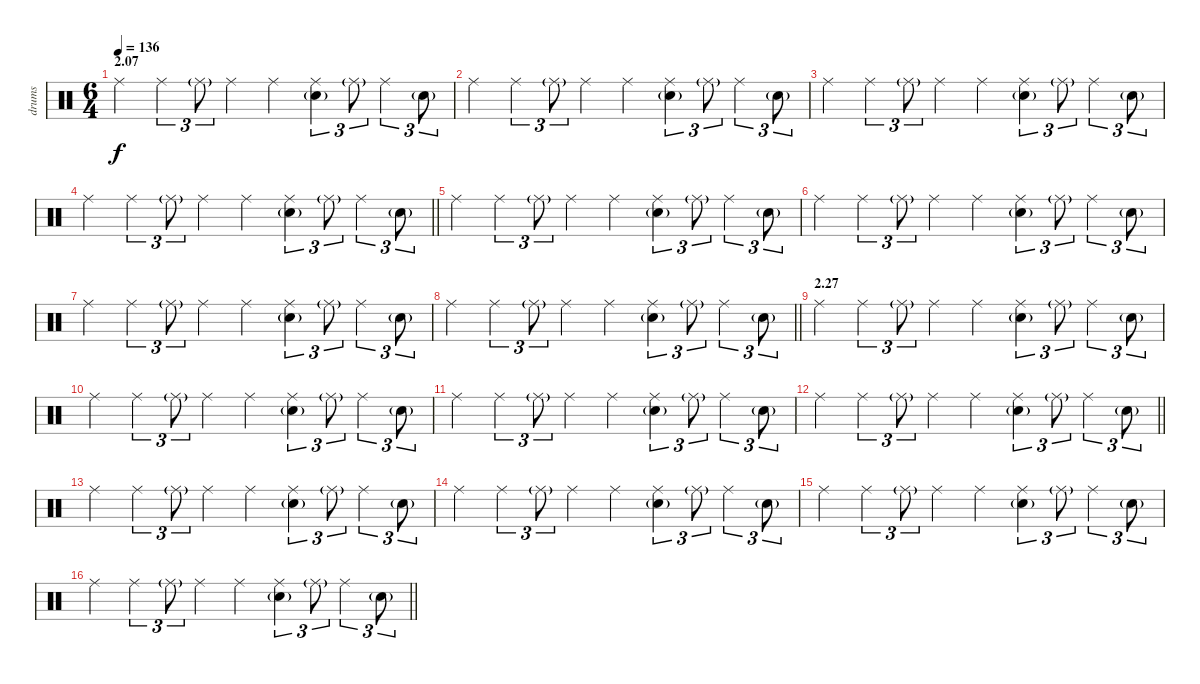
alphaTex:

\track ("drums" "drums") {instrument percussion}
\staff {score}
\articulation defaults
\ts (6 4)
\section ("" "2.07")
\tempo 136
\clef neutral
\ks c "Ride (middle)".4{dy f} "Ride (middle)".4{tu (3 2)} "Ride (middle)"{g}.8{tu (3 2)} "Ride (middle)".4 "Ride (middle)".4
("Ride (middle)" "Electric Snare (hit)"{g}).4{tu (3 2)} "Ride (middle)"{g}.8{tu (3 2)} "Ride (middle)".4{tu (3 2)} "Electric Snare (hit)"{g}.8{tu (3 2)} |
"Ride (middle)".4 "Ride (middle)".4{tu (3 2)} "Ride (middle)"{g}.8{tu (3 2)} "Ride (middle)".4 "Ride (middle)".4 ("Ride (middle)" "Electric Snare (hit)"{g}).4{tu (3 2)} "Ride (middle)"{g}.8{tu (3 2)} "Ride (middle)".4{tu (3 2)} "Electric Snare (hit)"{g}.8{tu (3 2)} |
"Ride (middle)".4 "Ride (middle)".4{tu (3 2)} "Ride (middle)"{g}.8{tu (3 2)} "Ride (middle)".4 "Ride (middle)".4 ("Ride (middle)" "Electric Snare (hit)"{g}).4{tu (3 2)} "Ride (middle)"{g}.8{tu (3 2)} "Ride (middle)".4{tu (3 2)} "Electric Snare (hit)"{g}.8{tu (3 2)} |
\barLineRight lightlight "Ride (middle)".4 "Ride (middle)".4{tu (3 2)} "Ride (middle)"{g}.8{tu (3 2)} "Ride (middle)".4 "Ride (middle)".4
("Ride (middle)" "Electric Snare (hit)"{g}).4{tu (3 2)} "Ride (middle)"{g}.8{tu (3 2)} "Ride (middle)".4{tu (3 2)} "Electric Snare (hit)"{g}.8{tu (3 2)} |
"Ride (middle)".4 "Ride (middle)".4{tu (3 2)} "Ride (middle)"{g}.8{tu (3 2)} "Ride (middle)".4 "Ride (middle)".4 ("Ride (middle)" "Electric Snare (hit)"{g}).4{tu (3 2)} "Ride (middle)"{g}.8{tu (3 2)} "Ride (middle)".4{tu (3 2)} "Electric Snare (hit)"{g}.8{tu (3 2)} |
"Ride (middle)".4 "Ride (middle)".4{tu (3 2)} "Ride (middle)"{g}.8{tu (3 2)} "Ride (middle)".4 "Ride (middle)".4 ("Ride (middle)" "Electric Snare (hit)"{g}).4{tu (3 2)} "Ride (middle)"{g}.8{tu (3 2)} "Ride (middle)".4{tu (3 2)} "Electric Snare (hit)"{g}.8{tu (3 2)} |
"Ride (middle)".4 "Ride (middle)".4{tu (3 2)} "Ride (middle)"{g}.8{tu (3 2)} "Ride (middle)".4 "Ride (middle)".4 ("Ride (middle)" "Electric Snare (hit)"{g}).4{tu (3 2)} "Ride (middle)"{g}.8{tu (3 2)} "Ride (middle)".4{tu (3 2)} "Electric Snare (hit)"{g}.8{tu (3 2)} |
\barLineRight lightlight "Ride (middle)".4 "Ride (middle)".4{tu (3 2)} "Ride (middle)"{g}.8{tu (3 2)} "Ride (middle)".4 "Ride (middle)".4
("Ride (middle)" "Electric Snare (hit)"{g}).4{tu (3 2)} "Ride (middle)"{g}.8{tu (3 2)} "Ride (middle)".4{tu (3 2)} "Electric Snare (hit)"{g}.8{tu (3 2)} |
\section ("" "2.27")
"Ride (middle)".4 "Ride (middle)".4{tu (3 2)} "Ride (middle)"{g}.8{tu (3 2)} "Ride (middle)".4 "Ride (middle)".4 ("Ride (middle)" "Electric Snare (hit)"{g}).4{tu (3 2)} "Ride (middle)"{g}.8{tu (3 2)} "Ride (middle)".4{tu (3 2)} "Electric Snare (hit)"{g}.8{tu (3 2)} |
"Ride (middle)".4 "Ride (middle)".4{tu (3 2)} "Ride (middle)"{g}.8{tu (3 2)} "Ride (middle)".4 "Ride (middle)".4 ("Ride (middle)" "Electric Snare (hit)"{g}).4{tu (3 2)} "Ride (middle)"{g}.8{tu (3 2)} "Ride (middle)".4{tu (3 2)} "Electric Snare (hit)"{g}.8{tu (3 2)} |
"Ride (middle)".4 "Ride (middle)".4{tu (3 2)} "Ride (middle)"{g}.8{tu (3 2)} "Ride (middle)".4 "Ride (middle)".4 ("Ride (middle)" "Electric Snare (hit)"{g}).4{tu (3 2)} "Ride (middle)"{g}.8{tu (3 2)} "Ride (middle)".4{tu (3 2)} "Electric Snare (hit)"{g}.8{tu (3 2)} |
\barLineRight lightlight "Ride (middle)".4 "Ride (middle)".4{tu (3 2)} "Ride (middle)"{g}.8{tu (3 2)} "Ride (middle)".4 "Ride (middle)".4
("Ride (middle)" "Electric Snare (hit)"{g}).4{tu (3 2)} "Ride (middle)"{g}.8{tu (3 2)} "Ride (middle)".4{tu (3 2)} "Electric Snare (hit)"{g}.8{tu (3 2)} |
"Ride (middle)".4 "Ride (middle)".4{tu (3 2)} "Ride (middle)"{g}.8{tu (3 2)} "Ride (middle)".4 "Ride (middle)".4 ("Ride (middle)" "Electric Snare (hit)"{g}).4{tu (3 2)} "Ride (middle)"{g}.8{tu (3 2)} "Ride (middle)".4{tu (3 2)} "Electric Snare (hit)"{g}.8{tu (3 2)} |
"Ride (middle)".4 "Ride (middle)".4{tu (3 2)} "Ride (middle)"{g}.8{tu (3 2)} "Ride (middle)".4 "Ride (middle)".4 ("Ride (middle)" "Electric Snare (hit)"{g}).4{tu (3 2)} "Ride (middle)"{g}.8{tu (3 2)} "Ride (middle)".4{tu (3 2)} "Electric Snare (hit)"{g}.8{tu (3 2)} |
"Ride (middle)".4 "Ride (middle)".4{tu (3 2)} "Ride (middle)"{g}.8{tu (3 2)} "Ride (middle)".4 "Ride (middle)".4 ("Ride (middle)" "Electric Snare (hit)"{g}).4{tu (3 2)} "Ride (middle)"{g}.8{tu (3 2)} "Ride (middle)".4{tu (3 2)} "Electric Snare (hit)"{g}.8{tu (3 2)} |
\barLineRight lightlight "Ride (middle)".4 "Ride (middle)".4{tu (3 2)} "Ride (middle)"{g}.8{tu (3 2)} "Ride (middle)".4 "Ride (middle)".4
("Ride (middle)" "Electric Snare (hit)"{g}).4{tu (3 2)} "Ride (middle)"{g}.8{tu (3 2)} "Ride (middle)".4{tu (3 2)} "Electric Snare (hit)"{g}.8{tu (3 2)}
